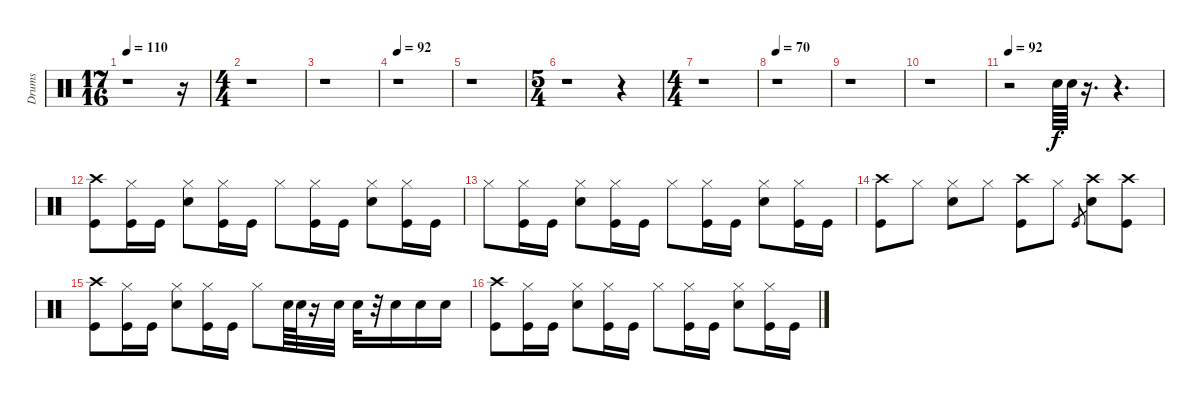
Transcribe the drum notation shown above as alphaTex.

\track ("Drums" "Drums") {instrument percussion}
\staff {score}
\articulation defaults
\ts (17 16)
\tempo 110
\clef neutral
\ks c
r.1{dy f} r.16 |
\ts (4 4)
r.1 |
r.1 |
\tempo 92
r.1 |
r.1 |
\ts (5 4)
r.1 r.4 |
\ts (4 4)
r.1 |
\tempo 70
r.1 |
r.1 |
r.1 |
\tempo 92
r.2 "Snare (hit) 2".64 "Snare (hit) 2".64 r.16{d} r.4{d} |
("Crash high (hit)" "Kick (hit)").8 ("Hi-Hat (closed)" "Kick (hit)").16 "Kick (hit)".16 ("Hi-Hat (closed)" "Snare (hit) 2").8 ("Hi-Hat (closed)" "Kick (hit)").16 "Kick (hit)".16 "Hi-Hat (closed)".8 ("Hi-Hat (closed)" "Kick (hit)").16 "Kick (hit)".16 ("Hi-Hat (closed)" "Snare (hit) 2").8 ("Hi-Hat (closed)" "Kick (hit)").16 "Kick (hit)".16 |
"Hi-Hat (closed)".8 ("Hi-Hat (closed)" "Kick (hit)").16 "Kick (hit)".16 ("Hi-Hat (closed)" "Snare (hit) 2").8 ("Hi-Hat (closed)" "Kick (hit)").16 "Kick (hit)".16 "Hi-Hat (closed)".8 ("Hi-Hat (closed)" "Kick (hit)").16 "Kick (hit)".16 ("Hi-Hat (closed)" "Snare (hit) 2").8 ("Hi-Hat (closed)" "Kick (hit)").16 "Kick (hit)".16 |
("Crash high (hit)" "Kick (hit)").8 "Hi-Hat (closed)".8 ("Hi-Hat (closed)" "Snare (hit) 2").8 "Hi-Hat (closed)".8 ("Crash high (hit)" "Kick (hit)").8 "Hi-Hat (closed)".8 "Kick (hit)".8{gr} ("Crash high (hit)" "Snare (hit) 2").8 ("Crash high (hit)" "Kick (hit)").8 |
("Crash high (hit)" "Kick (hit)").8 ("Hi-Hat (closed)" "Kick (hit)").16 "Kick (hit)".16 ("Hi-Hat (closed)" "Snare (hit) 2").8 ("Hi-Hat (closed)" "Kick (hit)").16 "Kick (hit)".16 "Hi-Hat (closed)".8 "Snare (hit) 2".64 "Snare (hit) 2".64 r.16 "Snare (hit) 2".32 "Snare (hit) 2".32 r.32 "Snare (hit) 2".16 "Snare (hit) 2".16 "Snare (hit) 2".16 |
("Crash high (hit)" "Kick (hit)").8 ("Hi-Hat (closed)" "Kick (hit)").16 "Kick (hit)".16 ("Hi-Hat (closed)" "Snare (hit) 2").8 ("Hi-Hat (closed)" "Kick (hit)").16 "Kick (hit)".16 "Hi-Hat (closed)".8 ("Hi-Hat (closed)" "Kick (hit)").16 "Kick (hit)".16 ("Hi-Hat (closed)" "Snare (hit) 2").8 ("Hi-Hat (closed)" "Kick (hit)").16 "Kick (hit)".16
